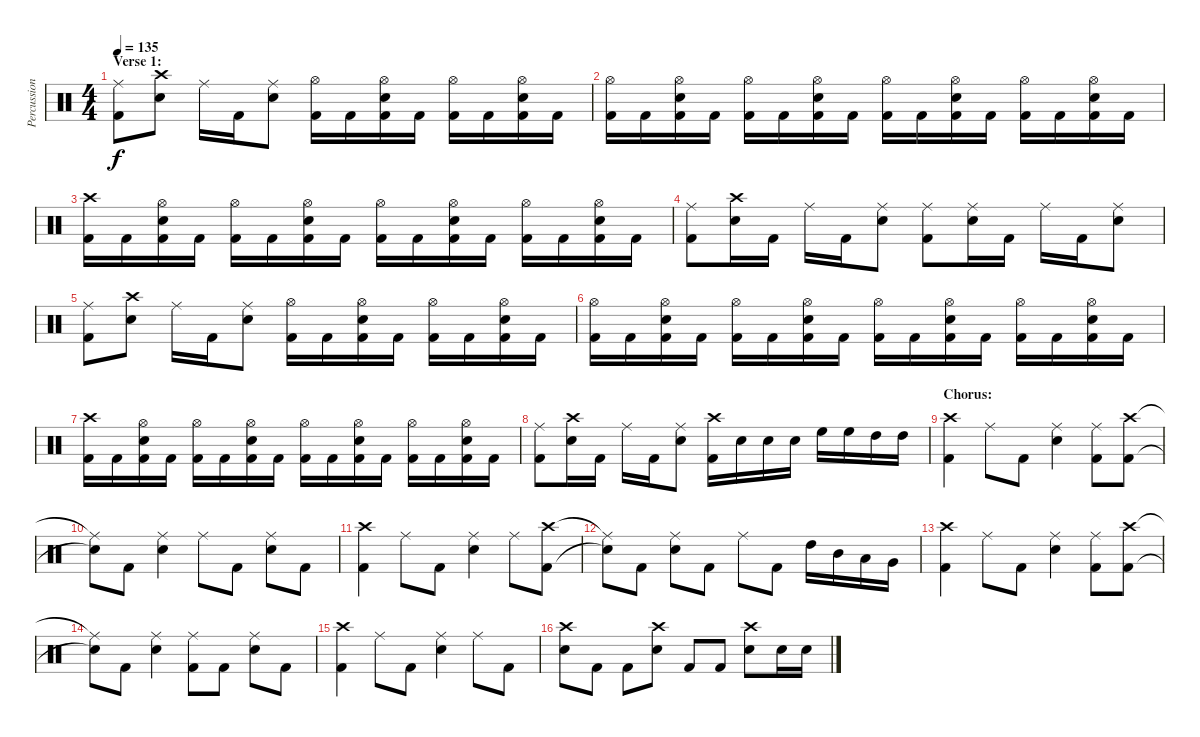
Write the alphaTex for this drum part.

\track ("Percussion" "Percussion") {instrument percussion}
\staff {score}
\articulation defaults
\ts (4 4)
\section ("" "Verse 1:")
\tempo 135
\clef neutral
\ks c
("Ride (middle)" "Kick (hit) 2").8{dy f} ("Crash high (hit)" "Electric Snare (hit)").8 "Ride (middle)".16 "Kick (hit) 2".16 ("Ride (middle)" "Electric Snare (hit)").8 ("Hi-Hat (open)" "Kick (hit) 2").16 "Kick (hit) 2".16 ("Hi-Hat (open)" "Electric Snare (hit)" "Kick (hit) 2").16 "Kick (hit) 2".16 ("Hi-Hat (open)" "Kick (hit) 2").16 "Kick (hit) 2".16 ("Hi-Hat (open)" "Electric Snare (hit)" "Kick (hit) 2").16 "Kick (hit) 2".16 |
("Hi-Hat (open)" "Kick (hit) 2").16 "Kick (hit) 2".16 ("Hi-Hat (open)" "Electric Snare (hit)" "Kick (hit) 2").16 "Kick (hit) 2".16 ("Hi-Hat (open)" "Kick (hit) 2").16 "Kick (hit) 2".16 ("Hi-Hat (open)" "Electric Snare (hit)" "Kick (hit) 2").16 "Kick (hit) 2".16 ("Hi-Hat (open)" "Kick (hit) 2").16 "Kick (hit) 2".16 ("Hi-Hat (open)" "Electric Snare (hit)" "Kick (hit) 2").16 "Kick (hit) 2".16 ("Hi-Hat (open)" "Kick (hit) 2").16 "Kick (hit) 2".16 ("Hi-Hat (open)" "Electric Snare (hit)" "Kick (hit) 2").16 "Kick (hit) 2".16 |
("Crash high (hit)" "Kick (hit) 2").16 "Kick (hit) 2".16 ("Hi-Hat (open)" "Electric Snare (hit)" "Kick (hit) 2").16 "Kick (hit) 2".16 ("Hi-Hat (open)" "Kick (hit) 2").16 "Kick (hit) 2".16 ("Hi-Hat (open)" "Electric Snare (hit)" "Kick (hit) 2").16 "Kick (hit) 2".16 ("Hi-Hat (open)" "Kick (hit) 2").16 "Kick (hit) 2".16 ("Hi-Hat (open)" "Electric Snare (hit)" "Kick (hit) 2").16 "Kick (hit) 2".16 ("Hi-Hat (open)" "Kick (hit) 2").16 "Kick (hit) 2".16 ("Hi-Hat (open)" "Electric Snare (hit)" "Kick (hit) 2").16 "Kick (hit) 2".16 |
("Ride (middle)" "Kick (hit) 2").8 ("Crash high (hit)" "Electric Snare (hit)").16 "Kick (hit) 2".16 "Ride (middle)".16 "Kick (hit) 2".16 ("Ride (middle)" "Electric Snare (hit)").8 ("Ride (middle)" "Kick (hit) 2").8 ("Ride (middle)" "Electric Snare (hit)").16 "Kick (hit) 2".16 "Ride (middle)".16 "Kick (hit) 2".16 ("Ride (middle)" "Electric Snare (hit)").8 |
("Ride (middle)" "Kick (hit) 2").8 ("Crash high (hit)" "Electric Snare (hit)").8 "Ride (middle)".16 "Kick (hit) 2".16 ("Ride (middle)" "Electric Snare (hit)").8 ("Hi-Hat (open)" "Kick (hit) 2").16 "Kick (hit) 2".16 ("Hi-Hat (open)" "Electric Snare (hit)" "Kick (hit) 2").16 "Kick (hit) 2".16 ("Hi-Hat (open)" "Kick (hit) 2").16 "Kick (hit) 2".16 ("Hi-Hat (open)" "Electric Snare (hit)" "Kick (hit) 2").16 "Kick (hit) 2".16 |
("Hi-Hat (open)" "Kick (hit) 2").16 "Kick (hit) 2".16 ("Hi-Hat (open)" "Electric Snare (hit)" "Kick (hit) 2").16 "Kick (hit) 2".16 ("Hi-Hat (open)" "Kick (hit) 2").16 "Kick (hit) 2".16 ("Hi-Hat (open)" "Electric Snare (hit)" "Kick (hit) 2").16 "Kick (hit) 2".16 ("Hi-Hat (open)" "Kick (hit) 2").16 "Kick (hit) 2".16 ("Hi-Hat (open)" "Electric Snare (hit)" "Kick (hit) 2").16 "Kick (hit) 2".16 ("Hi-Hat (open)" "Kick (hit) 2").16 "Kick (hit) 2".16 ("Hi-Hat (open)" "Electric Snare (hit)" "Kick (hit) 2").16 "Kick (hit) 2".16 |
("Crash high (hit)" "Kick (hit) 2").16 "Kick (hit) 2".16 ("Hi-Hat (open)" "Electric Snare (hit)" "Kick (hit) 2").16 "Kick (hit) 2".16 ("Hi-Hat (open)" "Kick (hit) 2").16 "Kick (hit) 2".16 ("Hi-Hat (open)" "Electric Snare (hit)" "Kick (hit) 2").16 "Kick (hit) 2".16 ("Hi-Hat (open)" "Kick (hit) 2").16 "Kick (hit) 2".16 ("Hi-Hat (open)" "Electric Snare (hit)" "Kick (hit) 2").16 "Kick (hit) 2".16 ("Hi-Hat (open)" "Kick (hit) 2").16 "Kick (hit) 2".16 ("Hi-Hat (open)" "Electric Snare (hit)" "Kick (hit) 2").16 "Kick (hit) 2".16 |
("Ride (middle)" "Kick (hit) 2").8 ("Crash high (hit)" "Electric Snare (hit)").16 "Kick (hit) 2".16 "Ride (middle)".16 "Kick (hit) 2".16 ("Ride (middle)" "Electric Snare (hit)").8 ("Crash high (hit)" "Kick (hit) 2").16 "Electric Snare (hit)".16 "Electric Snare (hit)".16 "Electric Snare (hit)".16 "High Floor Tom (hit)".16 "High Floor Tom (hit)".16 "High Tom (hit)".16 "High Tom (hit)".16 |
\section ("" "Chorus:")
("Crash high (hit)" "Kick (hit) 2").4 "Ride (middle)".8 "Kick (hit) 2".8 ("Ride (middle)" "Electric Snare (hit)").4 ("Ride (middle)" "Kick (hit) 2").8 ("Crash high (hit)" "Kick (hit) 2").8 |
("Ride (middle)"{t} "Snare (hit)"{t}).8 "Kick (hit) 2".8 ("Ride (middle)" "Electric Snare (hit)").4 "Ride (middle)".8 "Kick (hit) 2".8 ("Ride (middle)" "Electric Snare (hit)").8 "Kick (hit) 2".8 |
("Crash high (hit)" "Kick (hit) 2").4 "Ride (middle)".8 "Kick (hit) 2".8 ("Ride (middle)" "Electric Snare (hit)").4 "Ride (middle)".8 ("Crash high (hit)" "Kick (hit) 2").8 |
("Ride (middle)"{t} "Snare (hit)"{t}).8 "Kick (hit) 2".8 ("Ride (middle)" "Electric Snare (hit)").8 "Kick (hit) 2".8 "Ride (middle)".8 "Kick (hit) 2".8 "High Tom (hit)".16 "Mid Tom (hit)".16 "Low Tom (hit)".16 "Very Low Tom (hit)".16 |
("Crash high (hit)" "Kick (hit) 2").4 "Ride (middle)".8 "Kick (hit) 2".8 ("Ride (middle)" "Electric Snare (hit)").4 ("Ride (middle)" "Kick (hit) 2").8 ("Crash high (hit)" "Kick (hit) 2").8 |
("Ride (middle)"{t} "Snare (hit)"{t}).8 "Kick (hit) 2".8 ("Ride (middle)" "Electric Snare (hit)").4 ("Ride (middle)" "Kick (hit) 2").8 "Kick (hit) 2".8 ("Ride (middle)" "Electric Snare (hit)").8 "Kick (hit) 2".8 |
("Crash high (hit)" "Kick (hit) 2").4 "Ride (middle)".8 "Kick (hit) 2".8 ("Ride (middle)" "Electric Snare (hit)").4 "Ride (middle)".8 "Kick (hit) 2".8 |
("Crash high (hit)" "Electric Snare (hit)").8 "Kick (hit) 2".8 "Kick (hit) 2".8 ("Crash high (hit)" "Electric Snare (hit)").8 "Kick (hit) 2".8 "Kick (hit) 2".8 ("Crash high (hit)" "Electric Snare (hit)").8 "Electric Snare (hit)".16 "Electric Snare (hit)".16
